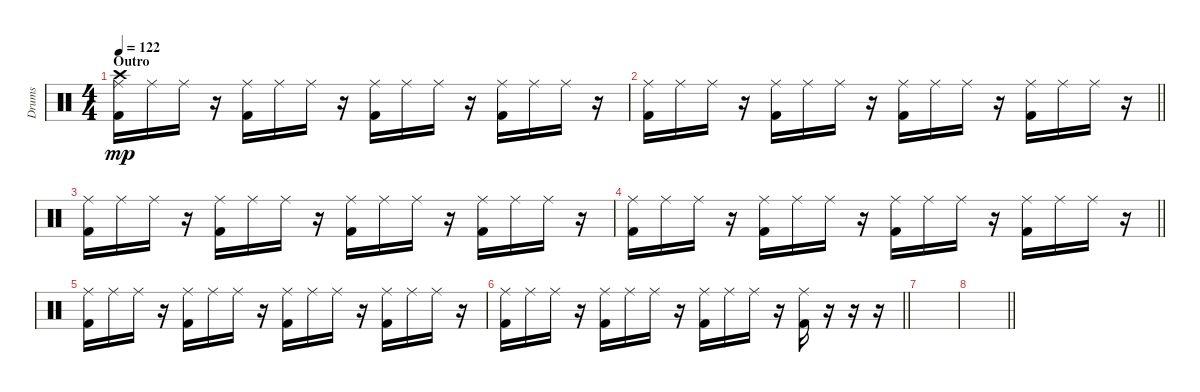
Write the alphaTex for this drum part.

\track ("Drums" "Drums") {instrument percussion}
\staff {score}
\articulation defaults
\ts (4 4)
\section ("" "Outro")
\tempo 122
\clef neutral
\ks c
("Kick (hit) 2" "Ride (middle)" "Crash high (hit)").16{dy mp} "Ride (middle)".16 "Ride (middle)".16 r.16 ("Kick (hit) 2" "Ride (middle)").16 "Ride (middle)".16 "Ride (middle)".16 r.16 ("Kick (hit) 2" "Ride (middle)").16 "Ride (middle)".16 "Ride (middle)".16 r.16 ("Kick (hit) 2" "Ride (middle)").16 "Ride (middle)".16 "Ride (middle)".16 r.16 |
\barLineRight lightlight
("Kick (hit) 2" "Ride (middle)").16 "Ride (middle)".16 "Ride (middle)".16 r.16 ("Kick (hit) 2" "Ride (middle)").16 "Ride (middle)".16 "Ride (middle)".16 r.16 ("Kick (hit) 2" "Ride (middle)").16 "Ride (middle)".16 "Ride (middle)".16 r.16 ("Kick (hit) 2" "Ride (middle)").16 "Ride (middle)".16 "Ride (middle)".16 r.16 |
("Kick (hit) 2" "Ride (middle)").16 "Ride (middle)".16 "Ride (middle)".16 r.16 ("Kick (hit) 2" "Ride (middle)").16 "Ride (middle)".16 "Ride (middle)".16 r.16 ("Kick (hit) 2" "Ride (middle)").16 "Ride (middle)".16 "Ride (middle)".16 r.16 ("Kick (hit) 2" "Ride (middle)").16 "Ride (middle)".16 "Ride (middle)".16 r.16 |
\barLineRight lightlight
("Kick (hit) 2" "Ride (middle)").16 "Ride (middle)".16 "Ride (middle)".16 r.16 ("Kick (hit) 2" "Ride (middle)").16 "Ride (middle)".16 "Ride (middle)".16 r.16 ("Kick (hit) 2" "Ride (middle)").16 "Ride (middle)".16 "Ride (middle)".16 r.16 ("Kick (hit) 2" "Ride (middle)").16 "Ride (middle)".16 "Ride (middle)".16 r.16 |
("Kick (hit) 2" "Ride (middle)").16 "Ride (middle)".16 "Ride (middle)".16 r.16 ("Kick (hit) 2" "Ride (middle)").16 "Ride (middle)".16 "Ride (middle)".16 r.16 ("Kick (hit) 2" "Ride (middle)").16 "Ride (middle)".16 "Ride (middle)".16 r.16 ("Kick (hit) 2" "Ride (middle)").16 "Ride (middle)".16 "Ride (middle)".16 r.16 |
\barLineRight lightlight
("Kick (hit) 2" "Ride (middle)").16 "Ride (middle)".16 "Ride (middle)".16 r.16 ("Kick (hit) 2" "Ride (middle)").16 "Ride (middle)".16 "Ride (middle)".16 r.16 ("Kick (hit) 2" "Ride (middle)").16 "Ride (middle)".16 "Ride (middle)".16 r.16 ("Kick (hit) 2" "Ride (middle)").16 r.16 r.16 r.16 |
|
\barLineRight lightlight
